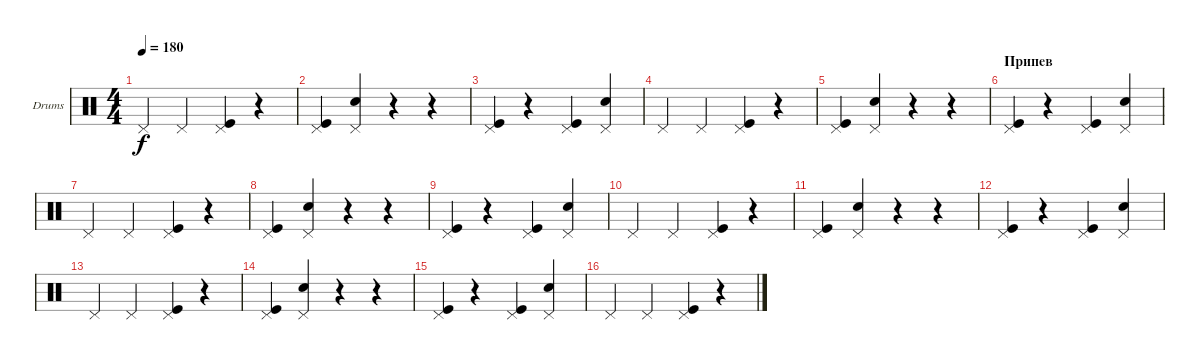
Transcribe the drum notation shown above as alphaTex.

\defaultSystemsLayout 4
\bracketExtendMode groupsimilarinstruments
\firstSystemTrackNameOrientation horizontal
\otherSystemsTrackNameOrientation horizontal
\track ("Георгий Гурьянов" "Drums") {instrument percussion}
\staff {score}
\articulation defaults
\ts (4 4)
\tempo 180
\clef neutral
\ks c "Pedal Hi-Hat (hit)".4{dy f} "Pedal Hi-Hat (hit)".4
("Pedal Hi-Hat (hit)" "Kick (hit)").4 r.4 |
("Pedal Hi-Hat (hit)" "Kick (hit)").4 ("Pedal Hi-Hat (hit)" "Snare (hit) 2").4 r.4 r.4 |
("Pedal Hi-Hat (hit)" "Kick (hit)").4 r.4 ("Pedal Hi-Hat (hit)" "Kick (hit)").4 ("Pedal Hi-Hat (hit)" "Snare (hit) 2").4 |
"Pedal Hi-Hat (hit)".4 "Pedal Hi-Hat (hit)".4 ("Pedal Hi-Hat (hit)" "Kick (hit)").4 r.4 |
("Pedal Hi-Hat (hit)" "Kick (hit)").4 ("Pedal Hi-Hat (hit)" "Snare (hit) 2").4 r.4 r.4 |
\section ("" "Припев")
("Pedal Hi-Hat (hit)" "Kick (hit)").4 r.4 ("Pedal Hi-Hat (hit)" "Kick (hit)").4 ("Pedal Hi-Hat (hit)" "Snare (hit) 2").4 |
"Pedal Hi-Hat (hit)".4 "Pedal Hi-Hat (hit)".4 ("Pedal Hi-Hat (hit)" "Kick (hit)").4 r.4 |
("Pedal Hi-Hat (hit)" "Kick (hit)").4 ("Pedal Hi-Hat (hit)" "Snare (hit) 2").4 r.4 r.4 |
("Pedal Hi-Hat (hit)" "Kick (hit)").4 r.4 ("Pedal Hi-Hat (hit)" "Kick (hit)").4 ("Pedal Hi-Hat (hit)" "Snare (hit) 2").4 |
"Pedal Hi-Hat (hit)".4 "Pedal Hi-Hat (hit)".4 ("Pedal Hi-Hat (hit)" "Kick (hit)").4 r.4 |
("Pedal Hi-Hat (hit)" "Kick (hit)").4 ("Pedal Hi-Hat (hit)" "Snare (hit) 2").4 r.4 r.4 |
("Pedal Hi-Hat (hit)" "Kick (hit)").4 r.4 ("Pedal Hi-Hat (hit)" "Kick (hit)").4 ("Pedal Hi-Hat (hit)" "Snare (hit) 2").4 |
"Pedal Hi-Hat (hit)".4 "Pedal Hi-Hat (hit)".4 ("Pedal Hi-Hat (hit)" "Kick (hit)").4 r.4 |
("Pedal Hi-Hat (hit)" "Kick (hit)").4 ("Pedal Hi-Hat (hit)" "Snare (hit) 2").4 r.4 r.4 |
("Pedal Hi-Hat (hit)" "Kick (hit)").4 r.4 ("Pedal Hi-Hat (hit)" "Kick (hit)").4 ("Pedal Hi-Hat (hit)" "Snare (hit) 2").4 |
"Pedal Hi-Hat (hit)".4 "Pedal Hi-Hat (hit)".4 ("Pedal Hi-Hat (hit)" "Kick (hit)").4 r.4
